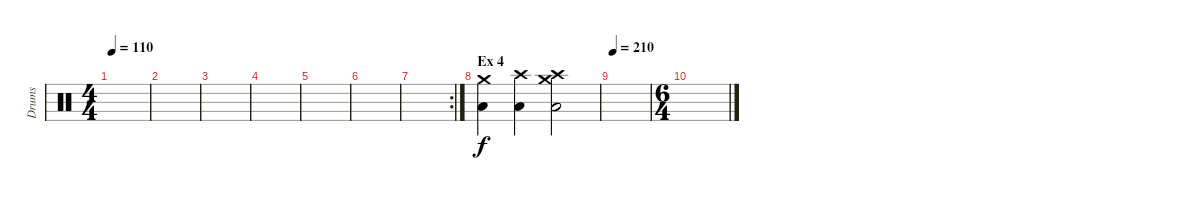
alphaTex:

\track ("Drums" "Drums") {instrument percussion}
\staff {score}
\articulation defaults
\ts (4 4)
\tempo 110
\clef neutral
\ks c
|
|
|
|
|
|
\rc 2
|
\section ("" "Ex 4")
("Crash medium (hit)" "Low Tom (hit)").4 ("Crash high (hit)" "Low Tom (hit)").4 ("Crash high (hit)" "Low Tom (hit)" "Crash medium (hit)").2 |
\tempo 210
|
\ts (6 4)
